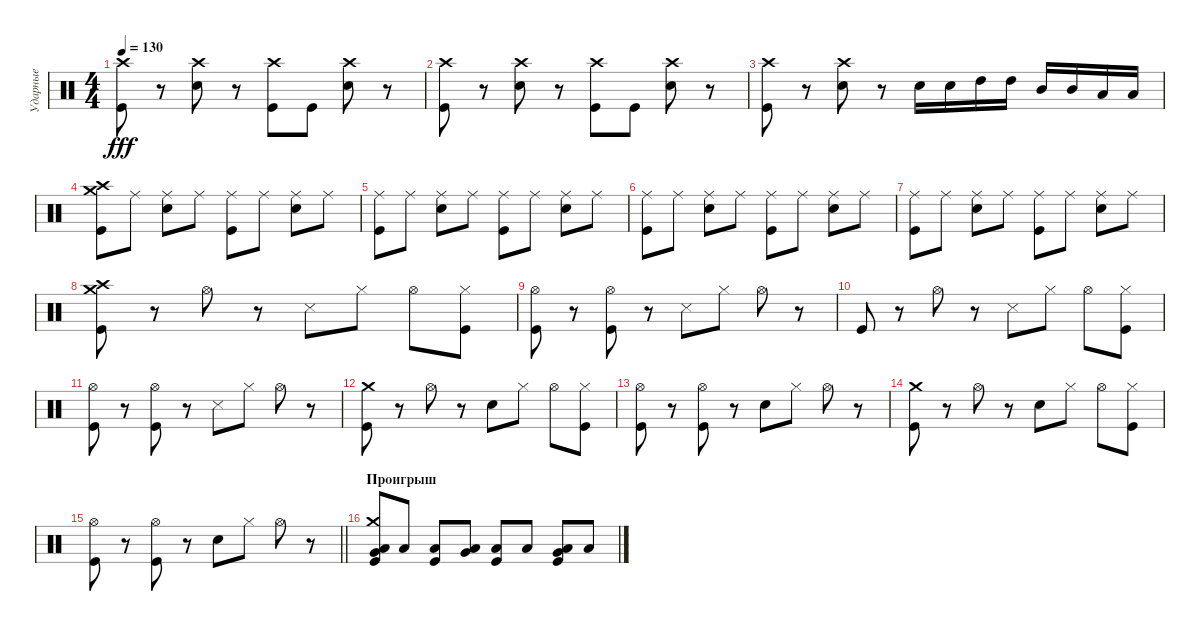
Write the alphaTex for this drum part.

\track ("Ударные" "Ударные") {instrument percussion}
\staff {score}
\articulation defaults
\ts (4 4)
\tempo 130
\clef neutral
\ks c
("Crash high (hit)" "Kick (hit)").8{dy fff} r.8 ("Crash high (hit)" "Electric Snare (hit)").8 r.8 ("Crash high (hit)" "Kick (hit)").8 "Kick (hit)".8 ("Crash high (hit)" "Electric Snare (hit)").8 r.8 |
("Crash high (hit)" "Kick (hit)").8 r.8 ("Crash high (hit)" "Electric Snare (hit)").8 r.8 ("Crash high (hit)" "Kick (hit)").8 "Kick (hit)".8 ("Crash high (hit)" "Electric Snare (hit)").8 r.8 |
("Crash high (hit)" "Kick (hit)").8 r.8 ("Crash high (hit)" "Electric Snare (hit)").8 r.8 "Electric Snare (hit)".16 "Electric Snare (hit)".16 "High Tom (hit)".16 "High Tom (hit)".16 "Mid Tom (hit)".16 "Mid Tom (hit)".16 "Low Tom (hit)".16 "Low Tom (hit)".16 |
("Crash medium (hit)" "Crash high (hit)" "Kick (hit)").8 "Ride (middle)".8 ("Ride (middle)" "Electric Snare (hit)").8 "Ride (middle)".8 ("Ride (middle)" "Kick (hit)").8 "Ride (middle)".8 ("Ride (middle)" "Electric Snare (hit)").8 "Ride (middle)".8 |
("Ride (middle)" "Kick (hit)").8 "Ride (middle)".8 ("Ride (middle)" "Electric Snare (hit)").8 "Ride (middle)".8 ("Ride (middle)" "Kick (hit)").8 "Ride (middle)".8 ("Ride (middle)" "Electric Snare (hit)").8 "Ride (middle)".8 |
("Ride (middle)" "Kick (hit)").8 "Ride (middle)".8 ("Ride (middle)" "Electric Snare (hit)").8 "Ride (middle)".8 ("Ride (middle)" "Kick (hit)").8 "Ride (middle)".8 ("Ride (middle)" "Electric Snare (hit)").8 "Ride (middle)".8 |
("Ride (middle)" "Kick (hit)").8 "Ride (middle)".8 ("Ride (middle)" "Electric Snare (hit)").8 "Ride (middle)".8 ("Ride (middle)" "Kick (hit)").8 "Ride (middle)".8 ("Ride (middle)" "Electric Snare (hit)").8 "Ride (middle)".8 |
("Crash medium (hit)" "Kick (hit)" "Crash high (hit)").8 r.8 "Hi-Hat (open)".8 r.8 "Snare (side stick) 3".8 "Hi-Hat (closed)".8 "Hi-Hat (open)".8 ("Kick (hit)" "Hi-Hat (closed)").8 |
("Kick (hit)" "Hi-Hat (open)").8 r.8 ("Kick (hit)" "Hi-Hat (open)").8 r.8 "Snare (side stick) 3".8 "Hi-Hat (closed)".8 "Hi-Hat (open)".8 r.8 |
"Kick (hit)".8 r.8 "Hi-Hat (open)".8 r.8 "Snare (side stick) 3".8 "Hi-Hat (closed)".8 "Hi-Hat (open)".8 ("Kick (hit)" "Hi-Hat (closed)").8 |
("Kick (hit)" "Hi-Hat (open)").8 r.8 ("Kick (hit)" "Hi-Hat (open)").8 r.8 "Snare (side stick) 3".8 "Hi-Hat (closed)".8 "Hi-Hat (open)".8 r.8 |
("Crash medium (hit)" "Kick (hit)").8 r.8 "Hi-Hat (open)".8 r.8 "Electric Snare (hit)".8 "Hi-Hat (closed)".8 "Hi-Hat (open)".8 ("Kick (hit)" "Hi-Hat (closed)").8 |
("Kick (hit)" "Hi-Hat (open)").8 r.8 ("Kick (hit)" "Hi-Hat (open)").8 r.8 "Electric Snare (hit)".8 "Hi-Hat (closed)".8 "Hi-Hat (open)".8 r.8 |
("Crash medium (hit)" "Kick (hit)").8 r.8 "Hi-Hat (open)".8 r.8 "Electric Snare (hit)".8 "Hi-Hat (closed)".8 "Hi-Hat (open)".8 ("Kick (hit)" "Hi-Hat (closed)").8 |
\barLineRight lightlight
("Kick (hit)" "Hi-Hat (open)").8 r.8 ("Kick (hit)" "Hi-Hat (open)").8 r.8 "Electric Snare (hit)".8 "Hi-Hat (closed)".8 "Hi-Hat (open)".8 r.8 |
\section ("" "Проигрыш")
("Kick (hit)" "Crash medium (hit)" "Low Tom (hit)" "Very Low Tom (hit)").8 "Low Tom (hit)".8 ("Kick (hit)" "Low Tom (hit)").8 ("Low Tom (hit)" "Very Low Tom (hit)").8 ("Kick (hit)" "Low Tom (hit)").8 "Low Tom (hit)".8 ("Kick (hit)" "Low Tom (hit)" "Very Low Tom (hit)").8 "Low Tom (hit)".8
